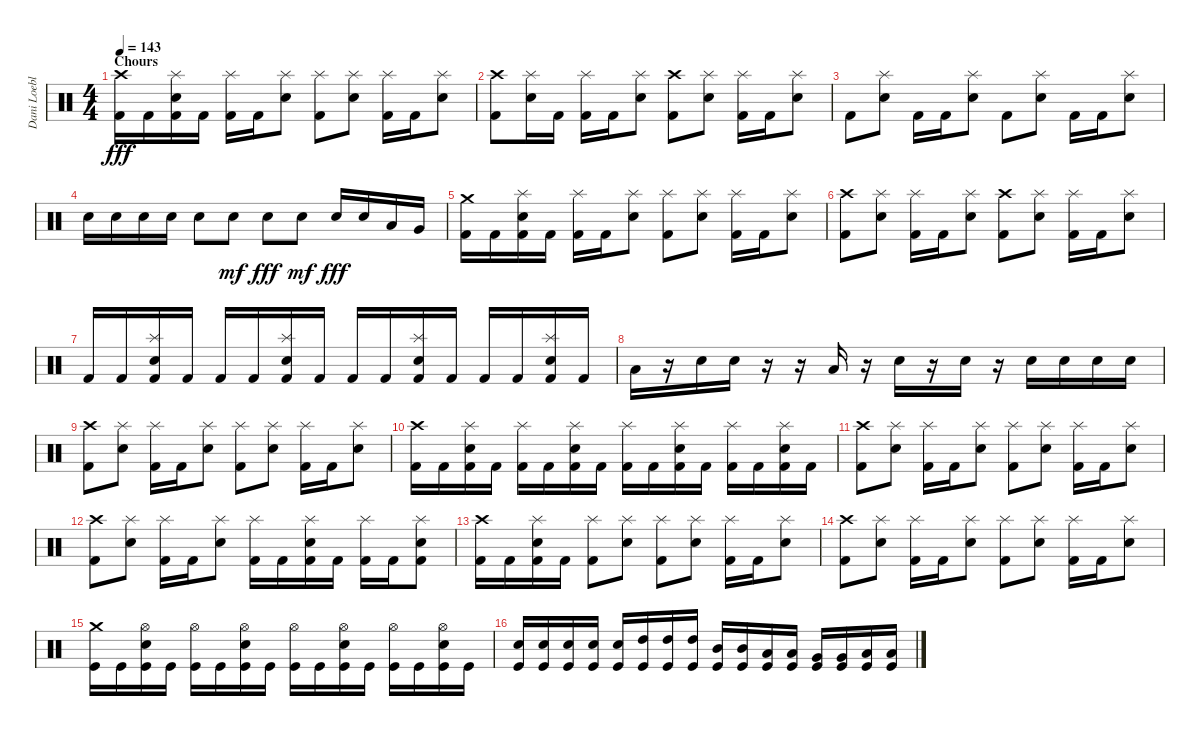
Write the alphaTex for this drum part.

\track ("Dani Loeble" "Dani Loebl") {instrument percussion}
\staff {score}
\articulation defaults
\ts (4 4)
\section ("" "Chours")
\tempo 143
\clef neutral
\ks c
("Crash high (hit)" "Kick (hit) 2").16{dy fff} "Kick (hit) 2".16 ("Splash (hit)" "Electric Snare (hit)" "Kick (hit) 2").16 "Kick (hit) 2".16 ("Splash (hit)" "Kick (hit) 2").16 "Kick (hit) 2".16 ("Splash (hit)" "Electric Snare (hit)").8 ("Splash (hit)" "Kick (hit) 2").8 ("Splash (hit)" "Electric Snare (hit)").8 ("Splash (hit)" "Kick (hit) 2").16 "Kick (hit) 2".16 ("Splash (hit)" "Electric Snare (hit)").8 |
("Crash high (hit)" "Kick (hit) 2").8 ("Splash (hit)" "Electric Snare (hit)").16 "Kick (hit) 2".16 ("Splash (hit)" "Kick (hit) 2").16 "Kick (hit) 2".16 ("Splash (hit)" "Electric Snare (hit)").8 ("Crash high (hit)" "Kick (hit) 2").8 ("Splash (hit)" "Electric Snare (hit)").8 ("Splash (hit)" "Kick (hit) 2").16 "Kick (hit) 2".16 ("Splash (hit)" "Electric Snare (hit)").8 |
"Kick (hit) 2".8 ("Splash (hit)" "Electric Snare (hit)").8 "Kick (hit) 2".16 "Kick (hit) 2".16 ("Splash (hit)" "Electric Snare (hit)").8 "Kick (hit) 2".8 ("Splash (hit)" "Electric Snare (hit)").8 "Kick (hit) 2".16 "Kick (hit) 2".16 ("Splash (hit)" "Electric Snare (hit)").8 |
"Electric Snare (hit)".16 "Electric Snare (hit)".16 "Electric Snare (hit)".16 "Electric Snare (hit)".16 "Electric Snare (hit)".8 "Electric Snare (hit)".8{dy mf} "Electric Snare (hit)".8{dy fff} "Electric Snare (hit)".8{dy mf} "Electric Snare (hit)".16{dy fff} "Electric Snare (hit)".16 "Low Tom (hit)".16 "Very Low Tom (hit)".16 |
("Crash medium (hit)" "Kick (hit) 2").16 "Kick (hit) 2".16 ("Splash (hit)" "Electric Snare (hit)" "Kick (hit) 2").16 "Kick (hit) 2".16 ("Splash (hit)" "Kick (hit) 2").16 "Kick (hit) 2".16 ("Splash (hit)" "Electric Snare (hit)").8 ("Splash (hit)" "Kick (hit) 2").8 ("Splash (hit)" "Electric Snare (hit)").8 ("Splash (hit)" "Kick (hit) 2").16 "Kick (hit) 2".16 ("Splash (hit)" "Electric Snare (hit)").8 |
("Crash high (hit)" "Kick (hit) 2").8 ("Splash (hit)" "Electric Snare (hit)").8 ("Splash (hit)" "Kick (hit) 2").16 "Kick (hit) 2".16 ("Splash (hit)" "Electric Snare (hit)").8 ("Crash high (hit)" "Kick (hit) 2").8 ("Splash (hit)" "Electric Snare (hit)").8 ("Splash (hit)" "Kick (hit) 2").16 "Kick (hit) 2".16 ("Splash (hit)" "Electric Snare (hit)").8 |
"Kick (hit) 2".16 "Kick (hit) 2".16 ("Splash (hit)" "Electric Snare (hit)" "Kick (hit) 2").16 "Kick (hit) 2".16 "Kick (hit) 2".16 "Kick (hit) 2".16 ("Splash (hit)" "Electric Snare (hit)" "Kick (hit) 2").16 "Kick (hit) 2".16 "Kick (hit) 2".16 "Kick (hit) 2".16 ("Splash (hit)" "Electric Snare (hit)" "Kick (hit) 2").16 "Kick (hit) 2".16 "Kick (hit) 2".16 "Kick (hit) 2".16 ("Splash (hit)" "Electric Snare (hit)" "Kick (hit) 2").16 "Kick (hit) 2".16 |
"Low Tom (hit)".16 r.16 "Electric Snare (hit)".16 "Electric Snare (hit)".16 r.16 r.16 "Low Tom (hit)".16 r.16 "Electric Snare (hit)".16 r.16 "Electric Snare (hit)".16 r.16 "Electric Snare (hit)".16 "Electric Snare (hit)".16 "Electric Snare (hit)".16 "Electric Snare (hit)".16 |
("Crash high (hit)" "Kick (hit) 2").8 ("Splash (hit)" "Electric Snare (hit)").8 ("Splash (hit)" "Kick (hit) 2").16 "Kick (hit) 2".16 ("Splash (hit)" "Electric Snare (hit)").8 ("Splash (hit)" "Kick (hit) 2").8 ("Splash (hit)" "Electric Snare (hit)").8 ("Splash (hit)" "Kick (hit) 2").16 "Kick (hit) 2".16 ("Splash (hit)" "Electric Snare (hit)").8 |
("Crash high (hit)" "Kick (hit) 2").16 "Kick (hit) 2".16 ("Splash (hit)" "Electric Snare (hit)" "Kick (hit) 2").16 "Kick (hit) 2".16 ("Splash (hit)" "Kick (hit) 2").16 "Kick (hit) 2".16 ("Splash (hit)" "Electric Snare (hit)" "Kick (hit) 2").16 "Kick (hit) 2".16 ("Splash (hit)" "Kick (hit) 2").16 "Kick (hit) 2".16 ("Splash (hit)" "Electric Snare (hit)" "Kick (hit) 2").16 "Kick (hit) 2".16 ("Splash (hit)" "Kick (hit) 2").16 "Kick (hit) 2".16 ("Splash (hit)" "Electric Snare (hit)" "Kick (hit) 2").16 "Kick (hit) 2".16 |
("Crash high (hit)" "Kick (hit) 2").8 ("Splash (hit)" "Electric Snare (hit)").8 ("Splash (hit)" "Kick (hit) 2").16 "Kick (hit) 2".16 ("Splash (hit)" "Electric Snare (hit)").8 ("Splash (hit)" "Kick (hit) 2").8 ("Splash (hit)" "Electric Snare (hit)").8 ("Splash (hit)" "Kick (hit) 2").16 "Kick (hit) 2".16 ("Splash (hit)" "Electric Snare (hit)").8 |
("Crash high (hit)" "Kick (hit) 2").8 ("Splash (hit)" "Electric Snare (hit)").8 ("Splash (hit)" "Kick (hit) 2").16 "Kick (hit) 2".16 ("Splash (hit)" "Electric Snare (hit)").8 ("Splash (hit)" "Kick (hit) 2").16 "Kick (hit) 2".16 ("Splash (hit)" "Electric Snare (hit)" "Kick (hit) 2").16 "Kick (hit) 2".16 ("Splash (hit)" "Kick (hit) 2").16 "Kick (hit) 2".16 ("Splash (hit)" "Electric Snare (hit)" "Kick (hit) 2").8 |
("Crash high (hit)" "Kick (hit) 2").16 "Kick (hit) 2".16 ("Splash (hit)" "Electric Snare (hit)" "Kick (hit) 2").16 "Kick (hit) 2".16 ("Splash (hit)" "Kick (hit) 2").8 ("Splash (hit)" "Electric Snare (hit)").8 ("Splash (hit)" "Kick (hit) 2").8 ("Splash (hit)" "Electric Snare (hit)").8 ("Splash (hit)" "Kick (hit) 2").16 "Kick (hit) 2".16 ("Splash (hit)" "Electric Snare (hit)").8 |
("Crash high (hit)" "Kick (hit) 2").8 ("Splash (hit)" "Electric Snare (hit)").8 ("Splash (hit)" "Kick (hit) 2").16 "Kick (hit) 2".16 ("Splash (hit)" "Electric Snare (hit)").8 ("Splash (hit)" "Kick (hit) 2").8 ("Splash (hit)" "Electric Snare (hit)").8 ("Splash (hit)" "Kick (hit) 2").16 "Kick (hit) 2".16 ("Splash (hit)" "Electric Snare (hit)").8 |
("Crash medium (hit)" "Kick (hit)").16 "Kick (hit)".16 ("Hi-Hat (open)" "Electric Snare (hit)" "Kick (hit)").16 "Kick (hit)".16 ("Hi-Hat (open)" "Kick (hit)").16 "Kick (hit)".16 ("Hi-Hat (open)" "Electric Snare (hit)" "Kick (hit)").16 "Kick (hit)".16 ("Hi-Hat (open)" "Kick (hit)").16 "Kick (hit)".16 ("Hi-Hat (open)" "Electric Snare (hit)" "Kick (hit)").16 "Kick (hit)".16 ("Hi-Hat (open)" "Kick (hit)").16 "Kick (hit)".16 ("Hi-Hat (open)" "Electric Snare (hit)" "Kick (hit)").16 "Kick (hit)".16 |
("Electric Snare (hit)" "Kick (hit)").16 ("Electric Snare (hit)" "Kick (hit)").16 ("Electric Snare (hit)" "Kick (hit)").16 ("Electric Snare (hit)" "Kick (hit)").16 ("Electric Snare (hit)" "Kick (hit)").16 ("High Tom (hit)" "Kick (hit)").16 ("High Tom (hit)" "Kick (hit)").16 ("High Tom (hit)" "Kick (hit)").16 ("Mid Tom (hit)" "Kick (hit)").16 ("Mid Tom (hit)" "Kick (hit)").16 ("Low Tom (hit)" "Kick (hit)").16 ("Low Tom (hit)" "Kick (hit)").16 ("Very Low Tom (hit)" "Kick (hit)").16 ("Very Low Tom (hit)" "Kick (hit)").16 ("Low Floor Tom (hit)" "Kick (hit)").16 ("Low Floor Tom (hit)" "Kick (hit)").16
